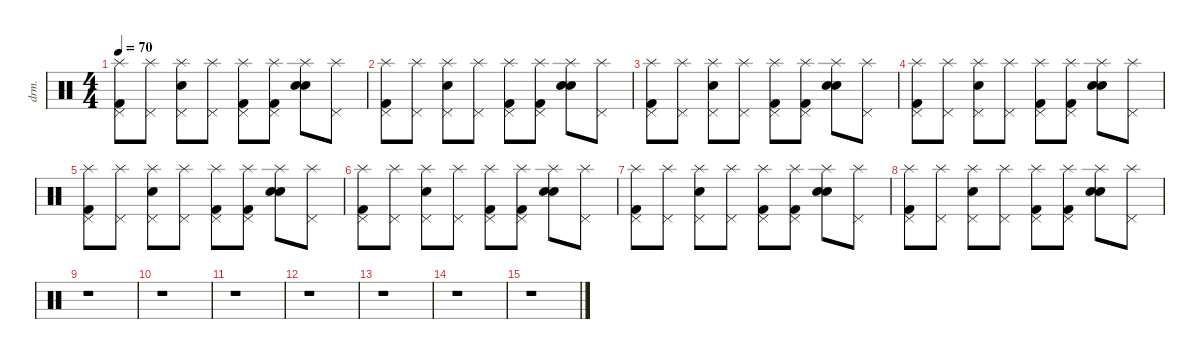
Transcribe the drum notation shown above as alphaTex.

\defaultSystemsLayout 4
\hideDynamics
\bracketExtendMode nobrackets
\otherSystemsTrackNameOrientation horizontal
\track ("Drums" "drm.") {defaultSystemsLayout 4 instrument percussion}
\staff {score}
\articulation defaults
\ts (4 4)
\tempo 70
\clef neutral
\ks c
("Splash (hit)" "Pedal Hi-Hat (hit)" "Kick (hit) 2").8{dy mf beam Down} ("Splash (hit)" "Pedal Hi-Hat (hit)").8{beam Down} ("Splash (hit)" "Pedal Hi-Hat (hit)" "Snare (hit) 2").8{beam Down} ("Splash (hit)" "Pedal Hi-Hat (hit)").8{beam Down} ("Splash (hit)" "Pedal Hi-Hat (hit)" "Kick (hit) 2").8{beam Down} ("Splash (hit)" "Pedal Hi-Hat (hit)" "Kick (hit) 2").8{beam Down} ("Splash (hit)" "Snare (hit) 2" "Snare (hit) 2").8{beam Down} ("Splash (hit)" "Pedal Hi-Hat (hit)").8{beam Down} |
("Splash (hit)" "Pedal Hi-Hat (hit)" "Kick (hit) 2").8{beam Down} ("Splash (hit)" "Pedal Hi-Hat (hit)").8{beam Down} ("Splash (hit)" "Pedal Hi-Hat (hit)" "Snare (hit) 2").8{beam Down} ("Splash (hit)" "Pedal Hi-Hat (hit)").8{beam Down} ("Splash (hit)" "Pedal Hi-Hat (hit)" "Kick (hit) 2").8{beam Down} ("Splash (hit)" "Pedal Hi-Hat (hit)" "Kick (hit) 2").8{beam Down} ("Splash (hit)" "Snare (hit) 2" "Snare (hit) 2").8{beam Down} ("Splash (hit)" "Pedal Hi-Hat (hit)").8{beam Down} |
("Splash (hit)" "Pedal Hi-Hat (hit)" "Kick (hit) 2").8{beam Down} ("Splash (hit)" "Pedal Hi-Hat (hit)").8{beam Down} ("Splash (hit)" "Pedal Hi-Hat (hit)" "Snare (hit) 2").8{beam Down} ("Splash (hit)" "Pedal Hi-Hat (hit)").8{beam Down} ("Splash (hit)" "Pedal Hi-Hat (hit)" "Kick (hit) 2").8{beam Down} ("Splash (hit)" "Pedal Hi-Hat (hit)" "Kick (hit) 2").8{beam Down} ("Splash (hit)" "Snare (hit) 2" "Snare (hit) 2").8{beam Down} ("Splash (hit)" "Pedal Hi-Hat (hit)").8{beam Down} |
("Splash (hit)" "Pedal Hi-Hat (hit)" "Kick (hit) 2").8{beam Down} ("Splash (hit)" "Pedal Hi-Hat (hit)").8{beam Down} ("Splash (hit)" "Pedal Hi-Hat (hit)" "Snare (hit) 2").8{beam Down} ("Splash (hit)" "Pedal Hi-Hat (hit)").8{beam Down} ("Splash (hit)" "Pedal Hi-Hat (hit)" "Kick (hit) 2").8{beam Down} ("Splash (hit)" "Pedal Hi-Hat (hit)" "Kick (hit) 2").8{beam Down} ("Splash (hit)" "Snare (hit) 2" "Snare (hit) 2").8{beam Down} ("Splash (hit)" "Pedal Hi-Hat (hit)").8{beam Down} |
("Splash (hit)" "Pedal Hi-Hat (hit)" "Kick (hit) 2").8{beam Down} ("Splash (hit)" "Pedal Hi-Hat (hit)").8{beam Down} ("Splash (hit)" "Pedal Hi-Hat (hit)" "Snare (hit) 2").8{beam Down} ("Splash (hit)" "Pedal Hi-Hat (hit)").8{beam Down} ("Splash (hit)" "Pedal Hi-Hat (hit)" "Kick (hit) 2").8{beam Down} ("Splash (hit)" "Pedal Hi-Hat (hit)" "Kick (hit) 2").8{beam Down} ("Splash (hit)" "Snare (hit) 2" "Snare (hit) 2").8{beam Down} ("Splash (hit)" "Pedal Hi-Hat (hit)").8{beam Down} |
("Splash (hit)" "Pedal Hi-Hat (hit)" "Kick (hit) 2").8{beam Down} ("Splash (hit)" "Pedal Hi-Hat (hit)").8{beam Down} ("Splash (hit)" "Pedal Hi-Hat (hit)" "Snare (hit) 2").8{beam Down} ("Splash (hit)" "Pedal Hi-Hat (hit)").8{beam Down} ("Splash (hit)" "Pedal Hi-Hat (hit)" "Kick (hit) 2").8{beam Down} ("Splash (hit)" "Pedal Hi-Hat (hit)" "Kick (hit) 2").8{beam Down} ("Splash (hit)" "Snare (hit) 2" "Snare (hit) 2").8{beam Down} ("Splash (hit)" "Pedal Hi-Hat (hit)").8{beam Down} |
("Splash (hit)" "Pedal Hi-Hat (hit)" "Kick (hit) 2").8{beam Down} ("Splash (hit)" "Pedal Hi-Hat (hit)").8{beam Down} ("Splash (hit)" "Pedal Hi-Hat (hit)" "Snare (hit) 2").8{beam Down} ("Splash (hit)" "Pedal Hi-Hat (hit)").8{beam Down} ("Splash (hit)" "Pedal Hi-Hat (hit)" "Kick (hit) 2").8{beam Down} ("Splash (hit)" "Pedal Hi-Hat (hit)" "Kick (hit) 2").8{beam Down} ("Splash (hit)" "Snare (hit) 2" "Snare (hit) 2").8{beam Down} ("Splash (hit)" "Pedal Hi-Hat (hit)").8{beam Down} |
("Splash (hit)" "Pedal Hi-Hat (hit)" "Kick (hit) 2").8{beam Down} ("Splash (hit)" "Pedal Hi-Hat (hit)").8{beam Down} ("Splash (hit)" "Pedal Hi-Hat (hit)" "Snare (hit) 2").8{beam Down} ("Splash (hit)" "Pedal Hi-Hat (hit)").8{beam Down} ("Splash (hit)" "Pedal Hi-Hat (hit)" "Kick (hit) 2").8{beam Down} ("Splash (hit)" "Pedal Hi-Hat (hit)" "Kick (hit) 2").8{beam Down} ("Splash (hit)" "Snare (hit) 2" "Snare (hit) 2").8{beam Down} ("Splash (hit)" "Pedal Hi-Hat (hit)").8{beam Down} |
r.1{beam Down} |
r.1{beam Down} |
r.1{beam Down} |
r.1{beam Down} |
r.1{beam Down} |
r.1{beam Down} |
r.1{beam Down}
